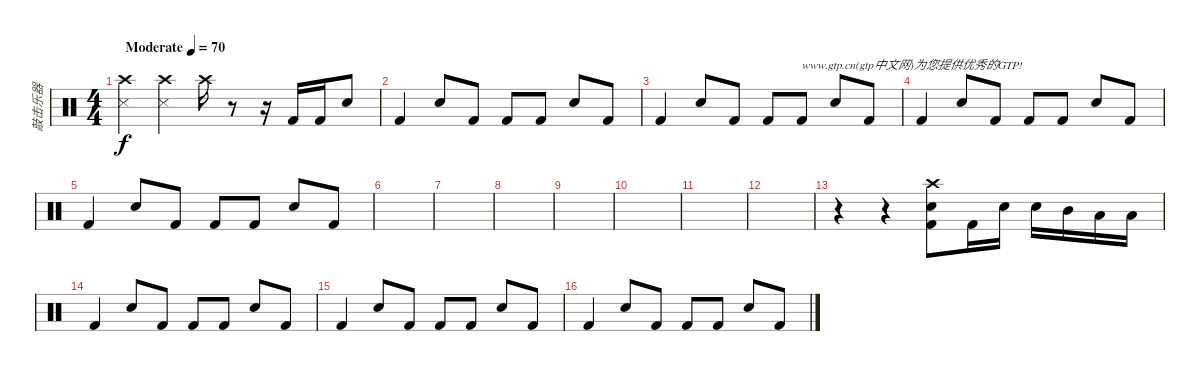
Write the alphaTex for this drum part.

\track ("敲击乐器" "敲击乐器") {instrument percussion}
\staff {score}
\articulation defaults
\ts (4 4)
\tempo (70 "Moderate")
\clef neutral
\ks c
("Snare (side stick) 3" "Crash high (hit)").4{txt " " dy f} ("Snare (side stick) 3" "Crash high (hit)").4 "Crash high (hit)".16 r.8 r.16 "Kick (hit) 2".16 "Kick (hit) 2".16 "Snare (hit) 2".8 |
"Kick (hit) 2".4 "Snare (hit) 2".8 "Kick (hit) 2".8 "Kick (hit) 2".8 "Kick (hit) 2".8 "Snare (hit) 2".8 "Kick (hit) 2".8 |
"Kick (hit) 2".4 "Snare (hit) 2".8 "Kick (hit) 2".8 "Kick (hit) 2".8 "Kick (hit) 2".8{txt "www.gtp.cn(gtp中文网)为您提供优秀的GTP!"} "Snare (hit) 2".8 "Kick (hit) 2".8 |
"Kick (hit) 2".4 "Snare (hit) 2".8 "Kick (hit) 2".8 "Kick (hit) 2".8 "Kick (hit) 2".8 "Snare (hit) 2".8 "Kick (hit) 2".8 |
"Kick (hit) 2".4 "Snare (hit) 2".8 "Kick (hit) 2".8 "Kick (hit) 2".8 "Kick (hit) 2".8 "Snare (hit) 2".8 "Kick (hit) 2".8 |
|
|
|
|
|
|
|
r.4 r.4 ("Crash high (hit)" "Kick (hit) 2" "Snare (hit) 2").8 "Kick (hit) 2".16 "Snare (hit) 2".16 "Snare (hit) 2".16 "Mid Tom (hit)".16 "Low Tom (hit)".16 "Low Floor Tom (hit)".16 |
"Kick (hit) 2".4 "Snare (hit) 2".8 "Kick (hit) 2".8 "Kick (hit) 2".8 "Kick (hit) 2".8 "Snare (hit) 2".8 "Kick (hit) 2".8 |
"Kick (hit) 2".4 "Snare (hit) 2".8 "Kick (hit) 2".8 "Kick (hit) 2".8 "Kick (hit) 2".8 "Snare (hit) 2".8 "Kick (hit) 2".8 |
"Kick (hit) 2".4 "Snare (hit) 2".8 "Kick (hit) 2".8 "Kick (hit) 2".8 "Kick (hit) 2".8 "Snare (hit) 2".8 "Kick (hit) 2".8
